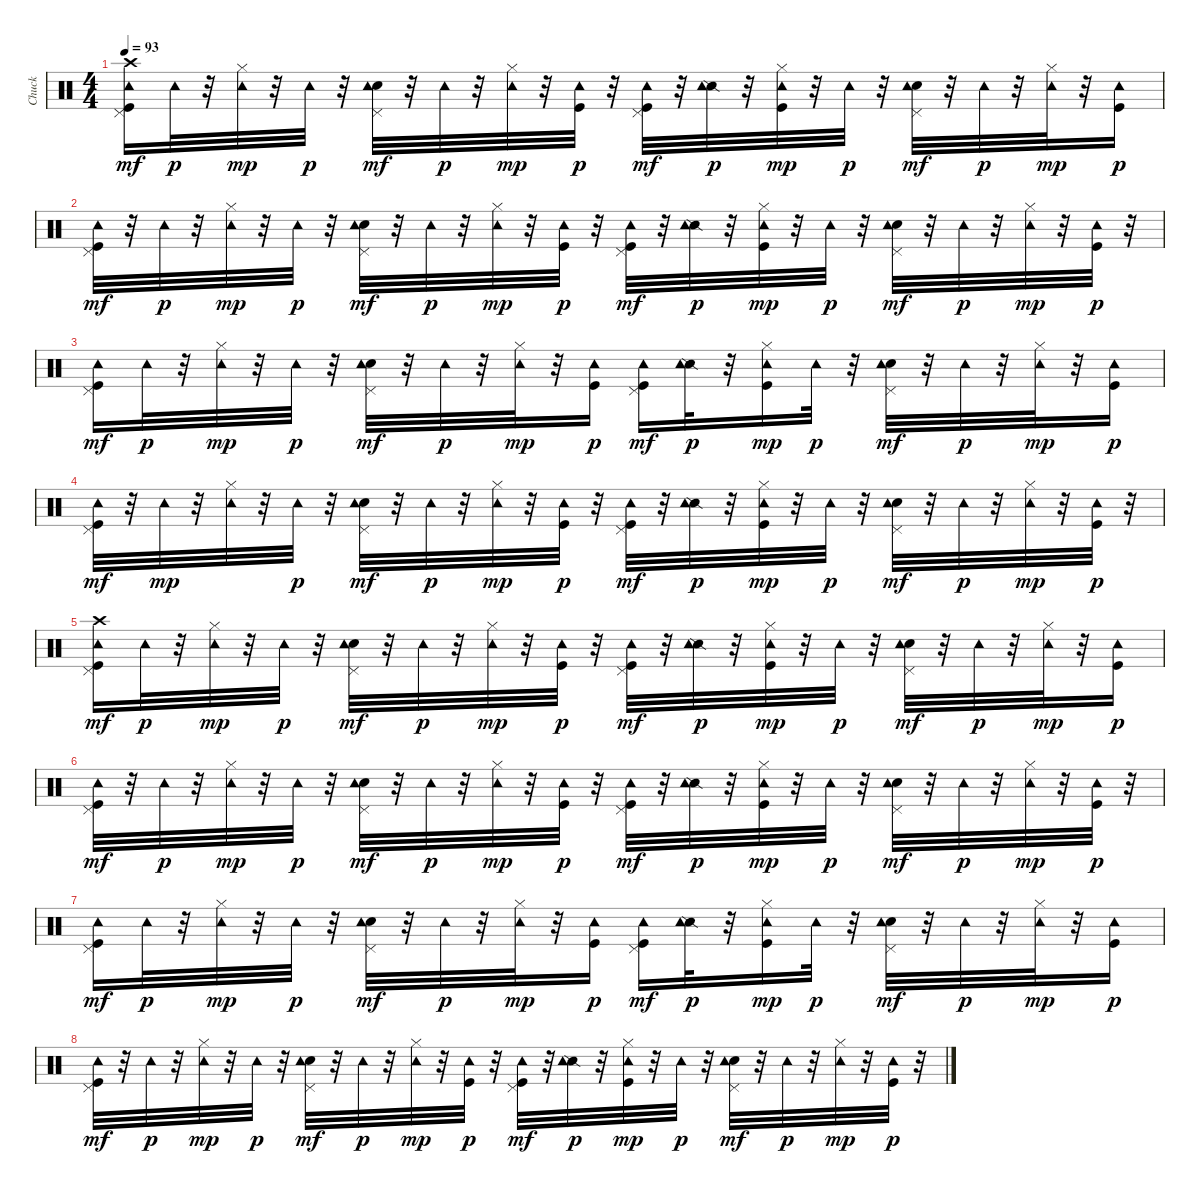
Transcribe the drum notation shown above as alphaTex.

\track ("Chuck" "Chuck") {instrument percussion}
\staff {score}
\articulation defaults
\ts (4 4)
\tempo 93
\clef neutral
\ks c
("Kick (hit)" "Pedal Hi-Hat (hit)" "Crash high (hit)" "Tambourine (hit)").16{dy mf} "Tambourine (hit)".32{dy p} r.32 ("Hi-Hat (closed)" "Tambourine (hit)").32{dy mp} r.32 "Tambourine (hit)".32{dy p} r.32 ("Electric Snare (hit)" "Pedal Hi-Hat (hit)" "Tambourine (hit)").32{dy mf} r.32 "Tambourine (hit)".32{dy p} r.32 ("Hi-Hat (closed)" "Tambourine (hit)").32{dy mp} r.32 ("Kick (hit)" "Tambourine (hit)").32{dy p} r.32 ("Kick (hit)" "Pedal Hi-Hat (hit)" "Tambourine (hit)").32{dy mf} r.32 ("Snare (side stick) 2" "Tambourine (hit)").32{dy p} r.32 ("Kick (hit)" "Hi-Hat (closed)" "Tambourine (hit)").32{dy mp} r.32 "Tambourine (hit)".32{dy p} r.32 ("Electric Snare (hit)" "Pedal Hi-Hat (hit)" "Tambourine (hit)").32{dy mf} r.32 "Tambourine (hit)".32{dy p} r.32 ("Hi-Hat (closed)" "Tambourine (hit)").32{dy mp} r.32 ("Kick (hit)" "Tambourine (hit)").16{dy p} |
("Kick (hit)" "Pedal Hi-Hat (hit)" "Tambourine (hit)").32{dy mf} r.32 "Tambourine (hit)".32{dy p} r.32 ("Hi-Hat (closed)" "Tambourine (hit)").32{dy mp} r.32 "Tambourine (hit)".32{dy p} r.32 ("Electric Snare (hit)" "Pedal Hi-Hat (hit)" "Tambourine (hit)").32{dy mf} r.32 "Tambourine (hit)".32{dy p} r.32 ("Hi-Hat (closed)" "Tambourine (hit)").32{dy mp} r.32 ("Kick (hit)" "Tambourine (hit)").32{dy p} r.32 ("Kick (hit)" "Pedal Hi-Hat (hit)" "Tambourine (hit)").32{dy mf} r.32 ("Snare (side stick) 2" "Tambourine (hit)").32{dy p} r.32 ("Kick (hit)" "Hi-Hat (closed)" "Tambourine (hit)").32{dy mp} r.32 "Tambourine (hit)".32{dy p} r.32 ("Electric Snare (hit)" "Pedal Hi-Hat (hit)" "Tambourine (hit)").32{dy mf} r.32 "Tambourine (hit)".32{dy p} r.32 ("Hi-Hat (closed)" "Tambourine (hit)").32{dy mp} r.32 ("Kick (hit)" "Tambourine (hit)").32{dy p} r.32 |
("Kick (hit)" "Pedal Hi-Hat (hit)" "Tambourine (hit)").16{dy mf} "Tambourine (hit)".32{dy p} r.32 ("Hi-Hat (closed)" "Tambourine (hit)").32{dy mp} r.32 "Tambourine (hit)".32{dy p} r.32 ("Electric Snare (hit)" "Pedal Hi-Hat (hit)" "Tambourine (hit)").32{dy mf} r.32 "Tambourine (hit)".32{dy p} r.32 ("Hi-Hat (closed)" "Tambourine (hit)").32{dy mp} r.32 ("Kick (hit)" "Tambourine (hit)").16{dy p} ("Kick (hit)" "Pedal Hi-Hat (hit)" "Tambourine (hit)").16{dy mf} ("Snare (side stick) 2" "Tambourine (hit)").32{dy p} r.32 ("Kick (hit)" "Hi-Hat (closed)" "Tambourine (hit)").16{dy mp} "Tambourine (hit)".32{dy p} r.32 ("Electric Snare (hit)" "Pedal Hi-Hat (hit)" "Tambourine (hit)").32{dy mf} r.32 "Tambourine (hit)".32{dy p} r.32 ("Hi-Hat (closed)" "Tambourine (hit)").32{dy mp} r.32 ("Kick (hit)" "Tambourine (hit)").16{dy p} |
("Kick (hit)" "Pedal Hi-Hat (hit)" "Tambourine (hit)").32{dy mf} r.32 "Tambourine (hit)".32{dy mp} r.32 ("Hi-Hat (closed)" "Tambourine (hit)").32 r.32 "Tambourine (hit)".32{dy p} r.32 ("Electric Snare (hit)" "Pedal Hi-Hat (hit)" "Tambourine (hit)").32{dy mf} r.32 "Tambourine (hit)".32{dy p} r.32 ("Hi-Hat (closed)" "Tambourine (hit)").32{dy mp} r.32 ("Kick (hit)" "Tambourine (hit)").32{dy p} r.32 ("Kick (hit)" "Pedal Hi-Hat (hit)" "Tambourine (hit)").32{dy mf} r.32 ("Snare (side stick) 2" "Tambourine (hit)").32{dy p} r.32 ("Kick (hit)" "Hi-Hat (closed)" "Tambourine (hit)").32{dy mp} r.32 "Tambourine (hit)".32{dy p} r.32 ("Electric Snare (hit)" "Pedal Hi-Hat (hit)" "Tambourine (hit)").32{dy mf} r.32 "Tambourine (hit)".32{dy p} r.32 ("Hi-Hat (closed)" "Tambourine (hit)").32{dy mp} r.32 ("Kick (hit)" "Tambourine (hit)").32{dy p} r.32 |
("Kick (hit)" "Pedal Hi-Hat (hit)" "Crash high (hit)" "Tambourine (hit)").16{dy mf} "Tambourine (hit)".32{dy p} r.32 ("Hi-Hat (closed)" "Tambourine (hit)").32{dy mp} r.32 "Tambourine (hit)".32{dy p} r.32 ("Electric Snare (hit)" "Pedal Hi-Hat (hit)" "Tambourine (hit)").32{dy mf} r.32 "Tambourine (hit)".32{dy p} r.32 ("Hi-Hat (closed)" "Tambourine (hit)").32{dy mp} r.32 ("Kick (hit)" "Tambourine (hit)").32{dy p} r.32 ("Kick (hit)" "Pedal Hi-Hat (hit)" "Tambourine (hit)").32{dy mf} r.32 ("Snare (side stick) 2" "Tambourine (hit)").32{dy p} r.32 ("Kick (hit)" "Hi-Hat (closed)" "Tambourine (hit)").32{dy mp} r.32 "Tambourine (hit)".32{dy p} r.32 ("Electric Snare (hit)" "Pedal Hi-Hat (hit)" "Tambourine (hit)").32{dy mf} r.32 "Tambourine (hit)".32{dy p} r.32 ("Hi-Hat (closed)" "Tambourine (hit)").32{dy mp} r.32 ("Kick (hit)" "Tambourine (hit)").16{dy p} |
("Kick (hit)" "Pedal Hi-Hat (hit)" "Tambourine (hit)").32{dy mf} r.32 "Tambourine (hit)".32{dy p} r.32 ("Hi-Hat (closed)" "Tambourine (hit)").32{dy mp} r.32 "Tambourine (hit)".32{dy p} r.32 ("Electric Snare (hit)" "Pedal Hi-Hat (hit)" "Tambourine (hit)").32{dy mf} r.32 "Tambourine (hit)".32{dy p} r.32 ("Hi-Hat (closed)" "Tambourine (hit)").32{dy mp} r.32 ("Kick (hit)" "Tambourine (hit)").32{dy p} r.32 ("Kick (hit)" "Pedal Hi-Hat (hit)" "Tambourine (hit)").32{dy mf} r.32 ("Snare (side stick) 2" "Tambourine (hit)").32{dy p} r.32 ("Kick (hit)" "Hi-Hat (closed)" "Tambourine (hit)").32{dy mp} r.32 "Tambourine (hit)".32{dy p} r.32 ("Electric Snare (hit)" "Pedal Hi-Hat (hit)" "Tambourine (hit)").32{dy mf} r.32 "Tambourine (hit)".32{dy p} r.32 ("Hi-Hat (closed)" "Tambourine (hit)").32{dy mp} r.32 ("Kick (hit)" "Tambourine (hit)").32{dy p} r.32 |
("Kick (hit)" "Pedal Hi-Hat (hit)" "Tambourine (hit)").16{dy mf} "Tambourine (hit)".32{dy p} r.32 ("Hi-Hat (closed)" "Tambourine (hit)").32{dy mp} r.32 "Tambourine (hit)".32{dy p} r.32 ("Electric Snare (hit)" "Pedal Hi-Hat (hit)" "Tambourine (hit)").32{dy mf} r.32 "Tambourine (hit)".32{dy p} r.32 ("Hi-Hat (closed)" "Tambourine (hit)").32{dy mp} r.32 ("Kick (hit)" "Tambourine (hit)").16{dy p} ("Kick (hit)" "Pedal Hi-Hat (hit)" "Tambourine (hit)").16{dy mf} ("Snare (side stick) 2" "Tambourine (hit)").32{dy p} r.32 ("Kick (hit)" "Hi-Hat (closed)" "Tambourine (hit)").16{dy mp} "Tambourine (hit)".32{dy p} r.32 ("Electric Snare (hit)" "Pedal Hi-Hat (hit)" "Tambourine (hit)").32{dy mf} r.32 "Tambourine (hit)".32{dy p} r.32 ("Hi-Hat (closed)" "Tambourine (hit)").32{dy mp} r.32 ("Kick (hit)" "Tambourine (hit)").16{dy p} |
("Kick (hit)" "Pedal Hi-Hat (hit)" "Tambourine (hit)").32{dy mf} r.32 "Tambourine (hit)".32{dy p} r.32 ("Hi-Hat (closed)" "Tambourine (hit)").32{dy mp} r.32 "Tambourine (hit)".32{dy p} r.32 ("Electric Snare (hit)" "Pedal Hi-Hat (hit)" "Tambourine (hit)").32{dy mf} r.32 "Tambourine (hit)".32{dy p} r.32 ("Hi-Hat (closed)" "Tambourine (hit)").32{dy mp} r.32 ("Kick (hit)" "Tambourine (hit)").32{dy p} r.32 ("Kick (hit)" "Pedal Hi-Hat (hit)" "Tambourine (hit)").32{dy mf} r.32 ("Snare (side stick) 2" "Tambourine (hit)").32{dy p} r.32 ("Kick (hit)" "Hi-Hat (closed)" "Tambourine (hit)").32{dy mp} r.32 "Tambourine (hit)".32{dy p} r.32 ("Electric Snare (hit)" "Pedal Hi-Hat (hit)" "Tambourine (hit)").32{dy mf} r.32 "Tambourine (hit)".32{dy p} r.32 ("Hi-Hat (closed)" "Tambourine (hit)").32{dy mp} r.32 ("Kick (hit)" "Tambourine (hit)").32{dy p} r.32
